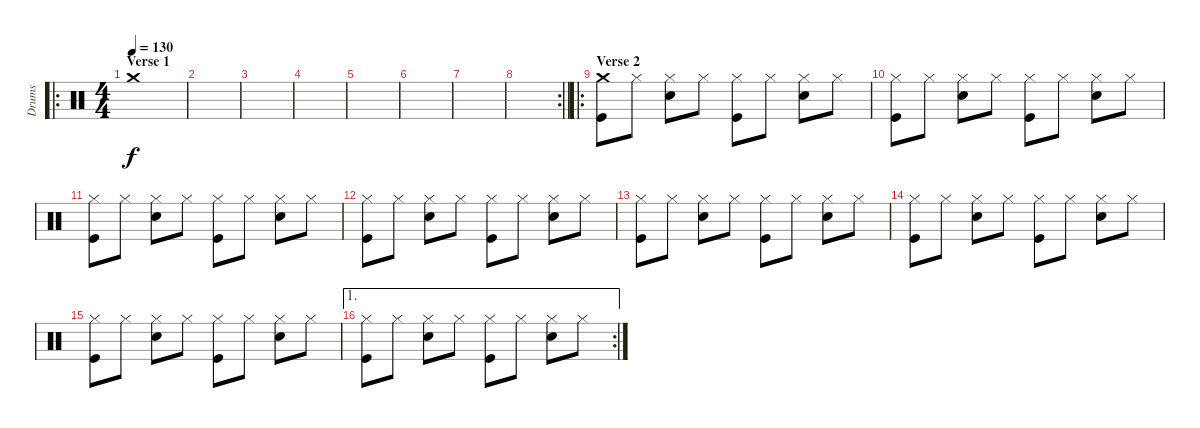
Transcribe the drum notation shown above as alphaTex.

\track ("Drums" "Drums") {instrument percussion}
\staff {score}
\articulation defaults
\ro
\ts (4 4)
\section ("" "Verse 1")
\tempo 130
\clef neutral
\ks c "Crash medium (hit)".1{dy f}
|
|
|
|
|
|
|
\rc 2
\barLineRight lightlight
|
\ro
\section ("" "Verse 2")
("Crash medium (hit)" "Kick (hit)").8 "Hi-Hat (closed)".8 ("Hi-Hat (closed)" "Snare (hit) 2").8 "Hi-Hat (closed)".8 ("Hi-Hat (closed)" "Kick (hit)").8 "Hi-Hat (closed)".8 ("Hi-Hat (closed)" "Snare (hit) 2").8 "Hi-Hat (closed)".8 |
("Hi-Hat (closed)" "Kick (hit)").8 "Hi-Hat (closed)".8 ("Hi-Hat (closed)" "Snare (hit) 2").8 "Hi-Hat (closed)".8 ("Hi-Hat (closed)" "Kick (hit)").8 "Hi-Hat (closed)".8 ("Hi-Hat (closed)" "Snare (hit) 2").8 "Hi-Hat (closed)".8 |
("Hi-Hat (closed)" "Kick (hit)").8 "Hi-Hat (closed)".8 ("Hi-Hat (closed)" "Snare (hit) 2").8 "Hi-Hat (closed)".8 ("Hi-Hat (closed)" "Kick (hit)").8 "Hi-Hat (closed)".8 ("Hi-Hat (closed)" "Snare (hit) 2").8 "Hi-Hat (closed)".8 |
("Hi-Hat (closed)" "Kick (hit)").8 "Hi-Hat (closed)".8 ("Hi-Hat (closed)" "Snare (hit) 2").8 "Hi-Hat (closed)".8 ("Hi-Hat (closed)" "Kick (hit)").8 "Hi-Hat (closed)".8 ("Hi-Hat (closed)" "Snare (hit) 2").8 "Hi-Hat (closed)".8 |
("Hi-Hat (closed)" "Kick (hit)").8 "Hi-Hat (closed)".8 ("Hi-Hat (closed)" "Snare (hit) 2").8 "Hi-Hat (closed)".8 ("Hi-Hat (closed)" "Kick (hit)").8 "Hi-Hat (closed)".8 ("Hi-Hat (closed)" "Snare (hit) 2").8 "Hi-Hat (closed)".8 |
("Hi-Hat (closed)" "Kick (hit)").8 "Hi-Hat (closed)".8 ("Hi-Hat (closed)" "Snare (hit) 2").8 "Hi-Hat (closed)".8 ("Hi-Hat (closed)" "Kick (hit)").8 "Hi-Hat (closed)".8 ("Hi-Hat (closed)" "Snare (hit) 2").8 "Hi-Hat (closed)".8 |
("Hi-Hat (closed)" "Kick (hit)").8 "Hi-Hat (closed)".8 ("Hi-Hat (closed)" "Snare (hit) 2").8 "Hi-Hat (closed)".8 ("Hi-Hat (closed)" "Kick (hit)").8 "Hi-Hat (closed)".8 ("Hi-Hat (closed)" "Snare (hit) 2").8 "Hi-Hat (closed)".8 |
\ae 1
\rc 2
("Hi-Hat (closed)" "Kick (hit)").8 "Hi-Hat (closed)".8 ("Hi-Hat (closed)" "Snare (hit) 2").8 "Hi-Hat (closed)".8 ("Hi-Hat (closed)" "Kick (hit)").8 "Hi-Hat (closed)".8 ("Hi-Hat (closed)" "Snare (hit) 2").8 "Hi-Hat (closed)".8
